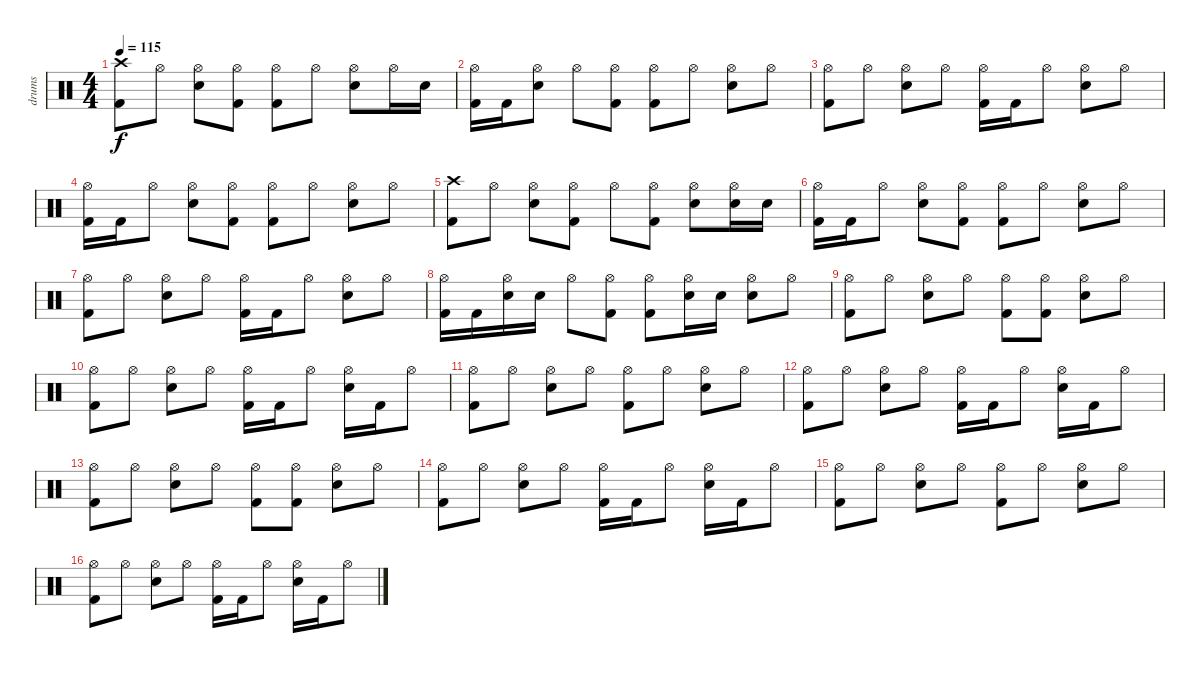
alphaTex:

\track ("drums" "drums") {instrument percussion}
\staff {score}
\articulation defaults
\ts (4 4)
\tempo 115
\clef neutral
\ks c
("Crash high (hit)" "Kick (hit) 2").8{dy f} "Hi-Hat (open)".8 ("Hi-Hat (open)" "Electric Snare (hit)").8 ("Hi-Hat (open)" "Kick (hit) 2").8 ("Hi-Hat (open)" "Kick (hit) 2").8 "Hi-Hat (open)".8 ("Hi-Hat (open)" "Electric Snare (hit)").8 "Hi-Hat (open)".16 "Electric Snare (hit)".16 |
("Hi-Hat (open)" "Kick (hit) 2").16 "Kick (hit) 2".16 ("Hi-Hat (open)" "Electric Snare (hit)").8 "Hi-Hat (open)".8 ("Hi-Hat (open)" "Kick (hit) 2").8 ("Hi-Hat (open)" "Kick (hit) 2").8 "Hi-Hat (open)".8 ("Hi-Hat (open)" "Electric Snare (hit)").8 "Hi-Hat (open)".8 |
("Hi-Hat (open)" "Kick (hit) 2").8 "Hi-Hat (open)".8 ("Hi-Hat (open)" "Electric Snare (hit)").8 "Hi-Hat (open)".8 ("Hi-Hat (open)" "Kick (hit) 2").16 "Kick (hit) 2".16 "Hi-Hat (open)".8 ("Hi-Hat (open)" "Electric Snare (hit)").8 "Hi-Hat (open)".8 |
("Hi-Hat (open)" "Kick (hit) 2").16 "Kick (hit) 2".16 "Hi-Hat (open)".8 ("Hi-Hat (open)" "Electric Snare (hit)").8 ("Hi-Hat (open)" "Kick (hit) 2").8 ("Hi-Hat (open)" "Kick (hit) 2").8 "Hi-Hat (open)".8 ("Hi-Hat (open)" "Electric Snare (hit)").8 "Hi-Hat (open)".8 |
("Crash high (hit)" "Kick (hit) 2").8 "Hi-Hat (open)".8 ("Hi-Hat (open)" "Electric Snare (hit)").8 ("Hi-Hat (open)" "Kick (hit) 2").8 "Hi-Hat (open)".8 ("Hi-Hat (open)" "Kick (hit) 2").8 ("Hi-Hat (open)" "Electric Snare (hit)").8 ("Hi-Hat (open)" "Electric Snare (hit)").16 "Electric Snare (hit)".16 |
("Hi-Hat (open)" "Kick (hit) 2").16 "Kick (hit) 2".16 "Hi-Hat (open)".8 ("Hi-Hat (open)" "Electric Snare (hit)").8 ("Hi-Hat (open)" "Kick (hit) 2").8 ("Hi-Hat (open)" "Kick (hit) 2").8 "Hi-Hat (open)".8 ("Hi-Hat (open)" "Electric Snare (hit)").8 "Hi-Hat (open)".8 |
("Hi-Hat (open)" "Kick (hit) 2").8 "Hi-Hat (open)".8 ("Hi-Hat (open)" "Electric Snare (hit)").8 "Hi-Hat (open)".8 ("Hi-Hat (open)" "Kick (hit) 2").16 "Kick (hit) 2".16 "Hi-Hat (open)".8 ("Hi-Hat (open)" "Electric Snare (hit)").8 "Hi-Hat (open)".8 |
("Hi-Hat (open)" "Kick (hit) 2").16 "Kick (hit) 2".16 ("Hi-Hat (open)" "Electric Snare (hit)").16 "Electric Snare (hit)".16 "Hi-Hat (open)".8 ("Hi-Hat (open)" "Kick (hit) 2").8 ("Hi-Hat (open)" "Kick (hit) 2").8 ("Hi-Hat (open)" "Electric Snare (hit)").16 "Electric Snare (hit)".16 ("Hi-Hat (open)" "Electric Snare (hit)").8 "Hi-Hat (open)".8 |
("Hi-Hat (open)" "Kick (hit) 2").8 "Hi-Hat (open)".8 ("Hi-Hat (open)" "Electric Snare (hit)").8 "Hi-Hat (open)".8 ("Hi-Hat (open)" "Kick (hit) 2").8 ("Hi-Hat (open)" "Kick (hit) 2").8 ("Hi-Hat (open)" "Electric Snare (hit)").8 "Hi-Hat (open)".8 |
("Hi-Hat (open)" "Kick (hit) 2").8 "Hi-Hat (open)".8 ("Hi-Hat (open)" "Electric Snare (hit)").8 "Hi-Hat (open)".8 ("Hi-Hat (open)" "Kick (hit) 2").16 "Kick (hit) 2".16 "Hi-Hat (open)".8 ("Hi-Hat (open)" "Electric Snare (hit)").16 "Kick (hit) 2".16 "Hi-Hat (open)".8 |
("Hi-Hat (open)" "Kick (hit) 2").8 "Hi-Hat (open)".8 ("Hi-Hat (open)" "Electric Snare (hit)").8 "Hi-Hat (open)".8 ("Hi-Hat (open)" "Kick (hit) 2").8 "Hi-Hat (open)".8 ("Hi-Hat (open)" "Electric Snare (hit)").8 "Hi-Hat (open)".8 |
("Hi-Hat (open)" "Kick (hit) 2").8 "Hi-Hat (open)".8 ("Hi-Hat (open)" "Electric Snare (hit)").8 "Hi-Hat (open)".8 ("Hi-Hat (open)" "Kick (hit) 2").16 "Kick (hit) 2".16 "Hi-Hat (open)".8 ("Hi-Hat (open)" "Electric Snare (hit)").16 "Kick (hit) 2".16 "Hi-Hat (open)".8 |
("Hi-Hat (open)" "Kick (hit) 2").8 "Hi-Hat (open)".8 ("Hi-Hat (open)" "Electric Snare (hit)").8 "Hi-Hat (open)".8 ("Hi-Hat (open)" "Kick (hit) 2").8 ("Hi-Hat (open)" "Kick (hit) 2").8 ("Hi-Hat (open)" "Electric Snare (hit)").8 "Hi-Hat (open)".8 |
("Hi-Hat (open)" "Kick (hit) 2").8 "Hi-Hat (open)".8 ("Hi-Hat (open)" "Electric Snare (hit)").8 "Hi-Hat (open)".8 ("Hi-Hat (open)" "Kick (hit) 2").16 "Kick (hit) 2".16 "Hi-Hat (open)".8 ("Hi-Hat (open)" "Electric Snare (hit)").16 "Kick (hit) 2".16 "Hi-Hat (open)".8 |
("Hi-Hat (open)" "Kick (hit) 2").8 "Hi-Hat (open)".8 ("Hi-Hat (open)" "Electric Snare (hit)").8 "Hi-Hat (open)".8 ("Hi-Hat (open)" "Kick (hit) 2").8 "Hi-Hat (open)".8 ("Hi-Hat (open)" "Electric Snare (hit)").8 "Hi-Hat (open)".8 |
("Hi-Hat (open)" "Kick (hit) 2").8 "Hi-Hat (open)".8 ("Hi-Hat (open)" "Electric Snare (hit)").8 "Hi-Hat (open)".8 ("Hi-Hat (open)" "Kick (hit) 2").16 "Kick (hit) 2".16 "Hi-Hat (open)".8 ("Hi-Hat (open)" "Electric Snare (hit)").16 "Kick (hit) 2".16 "Hi-Hat (open)".8
